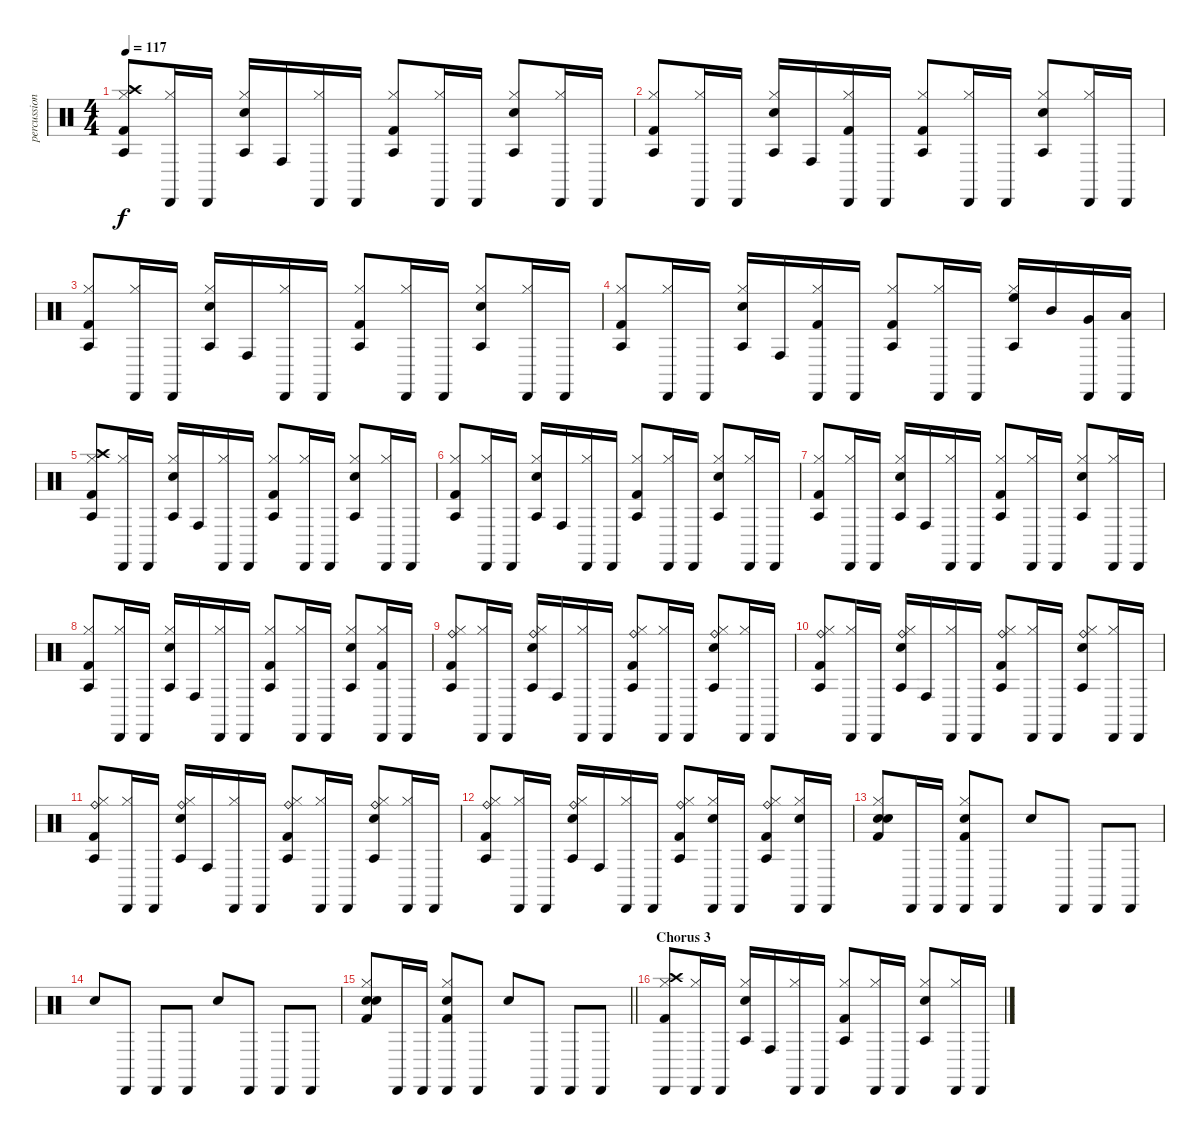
\track ("percussion" "percussion") {instrument percussion}
\staff {score}
\articulation defaults
\ts (4 4)
\tempo 117
\clef neutral
\ks c
("Crash high (hit)" "Agogo tow (hit)" "Hi-Hat (closed)" "Kick (hit) 2").8{dy f} ("Cabasa (hit)" "Hi-Hat (closed)").16 "Cabasa (hit)".16 ("Agogo tow (hit)" "Snare (hit) 2" "Hi-Hat (closed)").16 "Conga high (hit)".16 ("Cabasa (hit)" "Hi-Hat (closed)").16 "Cabasa (hit)".16 ("Agogo tow (hit)" "Hi-Hat (closed)" "Kick (hit) 2").8 ("Cabasa (hit)" "Hi-Hat (closed)").16 "Cabasa (hit)".16 ("Agogo tow (hit)" "Snare (hit) 2" "Hi-Hat (closed)").8 ("Cabasa (hit)" "Hi-Hat (closed)").16 "Cabasa (hit)".16 |
("Agogo tow (hit)" "Hi-Hat (closed)" "Kick (hit) 2").8 ("Cabasa (hit)" "Hi-Hat (closed)").16 "Cabasa (hit)".16 ("Agogo tow (hit)" "Snare (hit) 2" "Hi-Hat (closed)").16 "Conga high (hit)".16 ("Cabasa (hit)" "Hi-Hat (closed)" "Kick (hit) 2").16 "Cabasa (hit)".16 ("Agogo tow (hit)" "Hi-Hat (closed)" "Kick (hit) 2").8 ("Cabasa (hit)" "Hi-Hat (closed)").16 "Cabasa (hit)".16 ("Agogo tow (hit)" "Snare (hit) 2" "Hi-Hat (closed)").8 ("Cabasa (hit)" "Hi-Hat (closed)").16 "Cabasa (hit)".16 |
("Agogo tow (hit)" "Hi-Hat (closed)" "Kick (hit) 2").8 ("Cabasa (hit)" "Hi-Hat (closed)").16 "Cabasa (hit)".16 ("Agogo tow (hit)" "Snare (hit) 2" "Hi-Hat (closed)").16 "Conga high (hit)".16 ("Cabasa (hit)" "Hi-Hat (closed)").16 "Cabasa (hit)".16 ("Agogo tow (hit)" "Hi-Hat (closed)" "Kick (hit) 2").8 ("Cabasa (hit)" "Hi-Hat (closed)").16 "Cabasa (hit)".16 ("Agogo tow (hit)" "Snare (hit) 2" "Hi-Hat (closed)").8 ("Cabasa (hit)" "Hi-Hat (closed)").16 "Cabasa (hit)".16 |
("Agogo tow (hit)" "Hi-Hat (closed)" "Kick (hit) 2").8 ("Cabasa (hit)" "Hi-Hat (closed)").16 "Cabasa (hit)".16 ("Agogo tow (hit)" "Snare (hit) 2" "Hi-Hat (closed)").16 "Conga high (hit)".16 ("Cabasa (hit)" "Hi-Hat (closed)" "Kick (hit) 2").16 "Cabasa (hit)".16 ("Agogo tow (hit)" "Hi-Hat (closed)" "Kick (hit) 2").8 ("Cabasa (hit)" "Hi-Hat (closed)").16 "Cabasa (hit)".16 ("Agogo tow (hit)" "High Floor Tom (hit)" "Hi-Hat (closed)").16 "Mid Tom (hit)".16 ("Cabasa (hit)" "Very Low Tom (hit)").16 ("Cabasa (hit)" "Low Floor Tom (hit)").16 |
("Crash high (hit)" "Agogo tow (hit)" "Hi-Hat (closed)" "Kick (hit) 2").8 ("Cabasa (hit)" "Hi-Hat (closed)").16 "Cabasa (hit)".16 ("Agogo tow (hit)" "Snare (hit) 2" "Hi-Hat (closed)").16 "Conga high (hit)".16 ("Cabasa (hit)" "Hi-Hat (closed)").16 "Cabasa (hit)".16 ("Agogo tow (hit)" "Hi-Hat (closed)" "Kick (hit) 2").8 ("Cabasa (hit)" "Hi-Hat (closed)").16 "Cabasa (hit)".16 ("Agogo tow (hit)" "Snare (hit) 2" "Hi-Hat (closed)").8 ("Cabasa (hit)" "Hi-Hat (closed)").16 "Cabasa (hit)".16 |
("Agogo tow (hit)" "Hi-Hat (closed)" "Kick (hit) 2").8 ("Cabasa (hit)" "Hi-Hat (closed)").16 "Cabasa (hit)".16 ("Agogo tow (hit)" "Snare (hit) 2" "Hi-Hat (closed)").16 "Conga high (hit)".16 ("Cabasa (hit)" "Hi-Hat (closed)").16 "Cabasa (hit)".16 ("Agogo tow (hit)" "Hi-Hat (closed)" "Kick (hit) 2").8 ("Cabasa (hit)" "Hi-Hat (closed)").16 "Cabasa (hit)".16 ("Agogo tow (hit)" "Snare (hit) 2" "Hi-Hat (closed)").8 ("Cabasa (hit)" "Hi-Hat (closed)").16 "Cabasa (hit)".16 |
("Agogo tow (hit)" "Hi-Hat (closed)" "Kick (hit) 2").8 ("Cabasa (hit)" "Hi-Hat (closed)").16 "Cabasa (hit)".16 ("Agogo tow (hit)" "Snare (hit) 2" "Hi-Hat (closed)").16 "Conga high (hit)".16 ("Cabasa (hit)" "Hi-Hat (closed)").16 "Cabasa (hit)".16 ("Agogo tow (hit)" "Hi-Hat (closed)" "Kick (hit) 2").8 ("Cabasa (hit)" "Hi-Hat (closed)").16 "Cabasa (hit)".16 ("Agogo tow (hit)" "Snare (hit) 2" "Hi-Hat (closed)").8 ("Cabasa (hit)" "Hi-Hat (closed)").16 "Cabasa (hit)".16 |
("Agogo tow (hit)" "Hi-Hat (closed)" "Kick (hit) 2").8 ("Cabasa (hit)" "Hi-Hat (closed)").16 "Cabasa (hit)".16 ("Agogo tow (hit)" "Snare (hit) 2" "Hi-Hat (closed)").16 "Conga high (hit)".16 ("Cabasa (hit)" "Hi-Hat (closed)").16 "Cabasa (hit)".16 ("Agogo tow (hit)" "Hi-Hat (closed)" "Kick (hit) 2").8 ("Cabasa (hit)" "Hi-Hat (closed)").16 "Cabasa (hit)".16 ("Agogo tow (hit)" "Snare (hit) 2" "Hi-Hat (closed)").8 ("Cabasa (hit)" "Hi-Hat (closed)" "Kick (hit) 2").16 "Cabasa (hit)".16 |
("Ride (bell)" "Agogo tow (hit)" "Hi-Hat (closed)" "Kick (hit) 2").8 ("Cabasa (hit)" "Hi-Hat (closed)").16 "Cabasa (hit)".16 ("Ride (bell)" "Agogo tow (hit)" "Snare (hit) 2" "Hi-Hat (closed)").16 "Conga high (hit)".16 ("Cabasa (hit)" "Hi-Hat (closed)").16 "Cabasa (hit)".16 ("Ride (bell)" "Agogo tow (hit)" "Hi-Hat (closed)" "Kick (hit) 2").8 ("Cabasa (hit)" "Hi-Hat (closed)").16 "Cabasa (hit)".16 ("Ride (bell)" "Agogo tow (hit)" "Snare (hit) 2" "Hi-Hat (closed)").8 ("Cabasa (hit)" "Hi-Hat (closed)").16 "Cabasa (hit)".16 |
("Ride (bell)" "Agogo tow (hit)" "Hi-Hat (closed)" "Kick (hit) 2").8 ("Cabasa (hit)" "Hi-Hat (closed)").16 "Cabasa (hit)".16 ("Ride (bell)" "Agogo tow (hit)" "Snare (hit) 2" "Hi-Hat (closed)").16 "Conga high (hit)".16 ("Cabasa (hit)" "Hi-Hat (closed)").16 "Cabasa (hit)".16 ("Ride (bell)" "Agogo tow (hit)" "Hi-Hat (closed)" "Kick (hit) 2").8 ("Cabasa (hit)" "Hi-Hat (closed)").16 "Cabasa (hit)".16 ("Ride (bell)" "Agogo tow (hit)" "Snare (hit) 2" "Hi-Hat (closed)").8 ("Cabasa (hit)" "Hi-Hat (closed)").16 "Cabasa (hit)".16 |
("Ride (bell)" "Agogo tow (hit)" "Hi-Hat (closed)" "Kick (hit) 2").8 ("Cabasa (hit)" "Hi-Hat (closed)").16 "Cabasa (hit)".16 ("Ride (bell)" "Agogo tow (hit)" "Snare (hit) 2" "Hi-Hat (closed)").16 "Conga high (hit)".16 ("Cabasa (hit)" "Hi-Hat (closed)").16 "Cabasa (hit)".16 ("Ride (bell)" "Agogo tow (hit)" "Hi-Hat (closed)" "Kick (hit) 2").8 ("Cabasa (hit)" "Hi-Hat (closed)").16 "Cabasa (hit)".16 ("Ride (bell)" "Agogo tow (hit)" "Snare (hit) 2" "Hi-Hat (closed)").8 ("Cabasa (hit)" "Hi-Hat (closed)").16 "Cabasa (hit)".16 |
("Ride (bell)" "Agogo tow (hit)" "Hi-Hat (closed)" "Kick (hit) 2").8 ("Cabasa (hit)" "Hi-Hat (closed)").16 "Cabasa (hit)".16 ("Ride (bell)" "Agogo tow (hit)" "Snare (hit) 2" "Hi-Hat (closed)").16 "Conga high (hit)".16 ("Cabasa (hit)" "Hi-Hat (closed)").16 "Cabasa (hit)".16 ("Ride (bell)" "Agogo tow (hit)" "Hi-Hat (closed)" "Kick (hit) 2").8 ("Cabasa (hit)" "Snare (hit) 2" "Hi-Hat (closed)").16 "Cabasa (hit)".16 ("Ride (bell)" "Agogo tow (hit)" "Hi-Hat (closed)" "Kick (hit) 2").8 ("Cabasa (hit)" "Snare (hit) 2" "Hi-Hat (closed)").16 "Cabasa (hit)".16 |
("Hand Clap (hit)" "Snare (hit) 2" "Hi-Hat (closed)" "Kick (hit) 2").8 "Cabasa (hit)".16 "Cabasa (hit)".16 ("Cabasa (hit)" "Snare (hit) 2" "Hi-Hat (closed)" "Kick (hit) 2").8 "Cabasa (hit)".8 "Hand Clap (hit)".8 "Cabasa (hit)".8 "Cabasa (hit)".8 "Cabasa (hit)".8 |
"Hand Clap (hit)".8 "Cabasa (hit)".8 "Cabasa (hit)".8 "Cabasa (hit)".8 "Hand Clap (hit)".8 "Cabasa (hit)".8 "Cabasa (hit)".8 "Cabasa (hit)".8 |
\barLineRight lightlight
("Hand Clap (hit)" "Snare (hit) 2" "Hi-Hat (closed)" "Kick (hit) 2").8 "Cabasa (hit)".16 "Cabasa (hit)".16 ("Cabasa (hit)" "Snare (hit) 2" "Hi-Hat (closed)" "Kick (hit) 2").8 "Cabasa (hit)".8 "Hand Clap (hit)".8 "Cabasa (hit)".8 "Cabasa (hit)".8 "Cabasa (hit)".8 |
\section ("" "Chorus 3")
("Crash high (hit)" "Cabasa (hit)" "Hi-Hat (closed)" "Kick (hit) 2").8 ("Cabasa (hit)" "Hi-Hat (closed)").16 "Cabasa (hit)".16 ("Agogo tow (hit)" "Snare (hit) 2" "Hi-Hat (closed)").16 "Conga high (hit)".16 ("Cabasa (hit)" "Hi-Hat (closed)").16 "Cabasa (hit)".16 ("Agogo tow (hit)" "Hi-Hat (closed)" "Kick (hit) 2").8 ("Cabasa (hit)" "Hi-Hat (closed)").16 "Cabasa (hit)".16 ("Agogo tow (hit)" "Snare (hit) 2" "Hi-Hat (closed)").8 ("Cabasa (hit)" "Hi-Hat (closed)").16 "Cabasa (hit)".16
